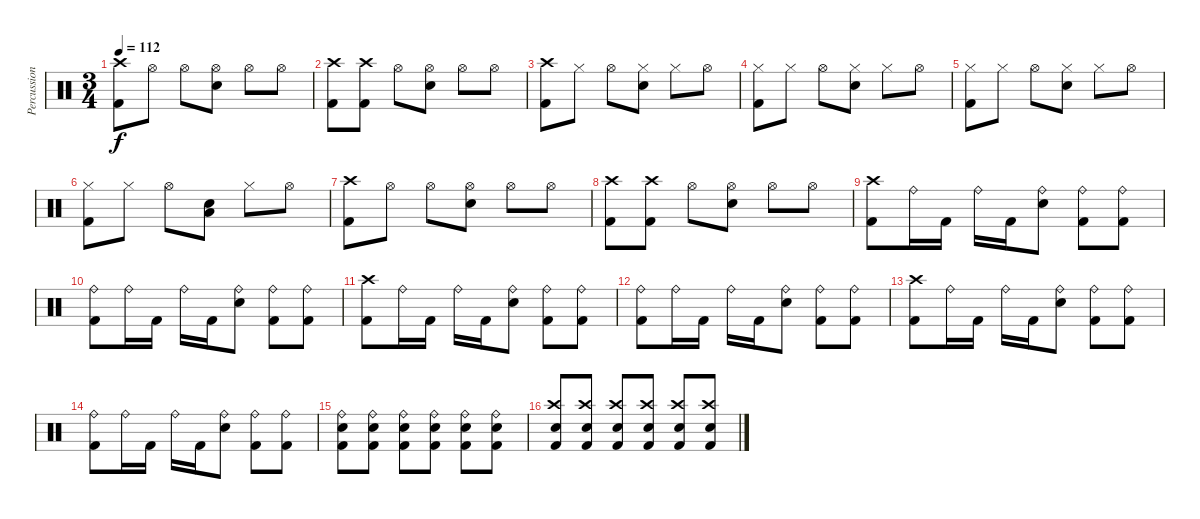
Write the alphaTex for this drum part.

\track ("Percussions" "Percussion") {instrument percussion}
\staff {score}
\articulation defaults
\ts (3 4)
\tempo 112
\clef neutral
\ks c
("Kick (hit) 2" "Crash high (hit)").8{dy f} "Hi-Hat (open)".8 "Hi-Hat (open)".8 ("Electric Snare (hit)" "Hi-Hat (open)").8 "Hi-Hat (open)".8 "Hi-Hat (open)".8 |
("Kick (hit) 2" "Crash high (hit)").8 ("Kick (hit) 2" "Crash high (hit)").8 "Hi-Hat (open)".8 ("Electric Snare (hit)" "Hi-Hat (open)").8 "Hi-Hat (open)".8 "Hi-Hat (open)".8 |
("Kick (hit) 2" "Crash high (hit)").8 "Hi-Hat (closed)".8 "Hi-Hat (open)".8 ("Electric Snare (hit)" "Hi-Hat (closed)").8 "Hi-Hat (closed)".8 "Hi-Hat (open)".8 |
("Kick (hit) 2" "Hi-Hat (closed)").8 "Hi-Hat (closed)".8 "Hi-Hat (open)".8 ("Electric Snare (hit)" "Hi-Hat (closed)").8 "Hi-Hat (closed)".8 "Hi-Hat (open)".8 |
("Kick (hit) 2" "Hi-Hat (closed)").8 "Hi-Hat (closed)".8 "Hi-Hat (open)".8 ("Electric Snare (hit)" "Hi-Hat (closed)").8 "Hi-Hat (closed)".8 "Hi-Hat (open)".8 |
("Kick (hit) 2" "Hi-Hat (closed)").8 "Hi-Hat (closed)".8 "Hi-Hat (open)".8 ("Electric Snare (hit)" "Low Floor Tom (hit)").8 "Hi-Hat (closed)".8 "Hi-Hat (open)".8 |
("Kick (hit) 2" "Crash high (hit)").8 "Hi-Hat (open)".8 "Hi-Hat (open)".8 ("Electric Snare (hit)" "Hi-Hat (open)").8 "Hi-Hat (open)".8 "Hi-Hat (open)".8 |
("Kick (hit) 2" "Crash high (hit)").8 ("Kick (hit) 2" "Crash high (hit)").8 "Hi-Hat (open)".8 ("Electric Snare (hit)" "Hi-Hat (open)").8 "Hi-Hat (open)".8 "Hi-Hat (open)".8 |
("Kick (hit) 2" "Crash high (hit)").8 "Ride (bell)".16 "Kick (hit) 2".16 "Ride (bell)".16 "Kick (hit) 2".16 ("Electric Snare (hit)" "Ride (bell)").8 ("Kick (hit) 2" "Ride (bell)").8 ("Kick (hit) 2" "Ride (bell)").8 |
("Kick (hit) 2" "Ride (bell)").8 "Ride (bell)".16 "Kick (hit) 2".16 "Ride (bell)".16 "Kick (hit) 2".16 ("Electric Snare (hit)" "Ride (bell)").8 ("Kick (hit) 2" "Ride (bell)").8 ("Kick (hit) 2" "Ride (bell)").8 |
("Kick (hit) 2" "Crash high (hit)").8 "Ride (bell)".16 "Kick (hit) 2".16 "Ride (bell)".16 "Kick (hit) 2".16 ("Electric Snare (hit)" "Ride (bell)").8 ("Kick (hit) 2" "Ride (bell)").8 ("Kick (hit) 2" "Ride (bell)").8 |
("Kick (hit) 2" "Ride (bell)").8 "Ride (bell)".16 "Kick (hit) 2".16 "Ride (bell)".16 "Kick (hit) 2".16 ("Electric Snare (hit)" "Ride (bell)").8 ("Kick (hit) 2" "Ride (bell)").8 ("Kick (hit) 2" "Ride (bell)").8 |
("Kick (hit) 2" "Crash high (hit)").8 "Ride (bell)".16 "Kick (hit) 2".16 "Ride (bell)".16 "Kick (hit) 2".16 ("Electric Snare (hit)" "Ride (bell)").8 ("Kick (hit) 2" "Ride (bell)").8 ("Kick (hit) 2" "Ride (bell)").8 |
("Kick (hit) 2" "Ride (bell)").8 "Ride (bell)".16 "Kick (hit) 2".16 "Ride (bell)".16 "Kick (hit) 2".16 ("Electric Snare (hit)" "Ride (bell)").8 ("Kick (hit) 2" "Ride (bell)").8 ("Kick (hit) 2" "Ride (bell)").8 |
("Kick (hit) 2" "Electric Snare (hit)" "Ride (bell)").8 ("Kick (hit) 2" "Electric Snare (hit)" "Ride (bell)").8 ("Kick (hit) 2" "Electric Snare (hit)" "Ride (bell)").8 ("Kick (hit) 2" "Electric Snare (hit)" "Ride (bell)").8 ("Kick (hit) 2" "Electric Snare (hit)" "Ride (bell)").8 ("Kick (hit) 2" "Electric Snare (hit)" "Ride (bell)").8 |
("Kick (hit) 2" "Electric Snare (hit)" "Crash high (hit)").8 ("Kick (hit) 2" "Electric Snare (hit)" "Crash high (hit)").8 ("Kick (hit) 2" "Electric Snare (hit)" "Crash high (hit)").8 ("Kick (hit) 2" "Electric Snare (hit)" "Crash high (hit)").8 ("Kick (hit) 2" "Electric Snare (hit)" "Crash high (hit)").8 ("Kick (hit) 2" "Electric Snare (hit)" "Crash high (hit)").8
